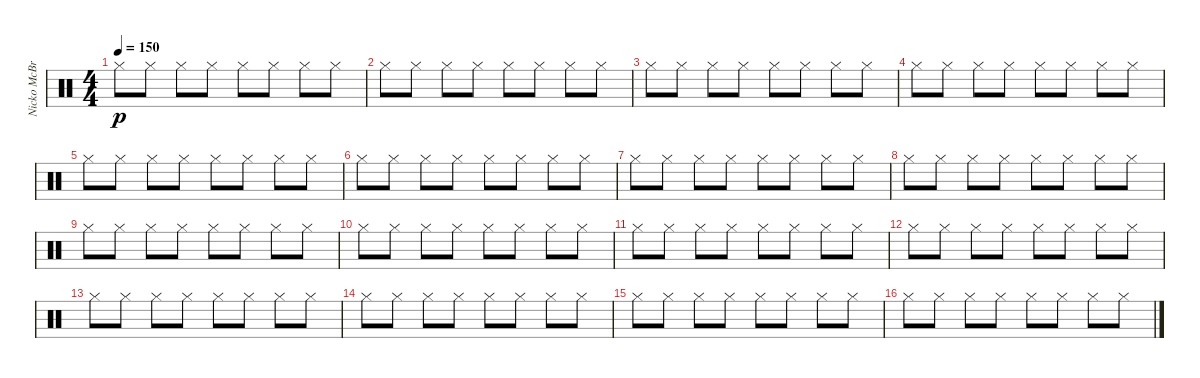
\track ("Nicko McBrain" "Nicko McBr") {instrument percussion}
\staff {score}
\articulation defaults
\ts (4 4)
\tempo 150
\clef neutral
\ks c "Hi-Hat (closed)".8{dy p} "Hi-Hat (closed)".8 "Hi-Hat (closed)".8 "Hi-Hat (closed)".8 "Hi-Hat (closed)".8 "Hi-Hat (closed)".8 "Hi-Hat (closed)".8 "Hi-Hat (closed)".8
|
"Hi-Hat (closed)".8 "Hi-Hat (closed)".8 "Hi-Hat (closed)".8 "Hi-Hat (closed)".8 "Hi-Hat (closed)".8 "Hi-Hat (closed)".8 "Hi-Hat (closed)".8 "Hi-Hat (closed)".8 |
"Hi-Hat (closed)".8 "Hi-Hat (closed)".8 "Hi-Hat (closed)".8 "Hi-Hat (closed)".8 "Hi-Hat (closed)".8 "Hi-Hat (closed)".8 "Hi-Hat (closed)".8 "Hi-Hat (closed)".8 |
"Hi-Hat (closed)".8 "Hi-Hat (closed)".8 "Hi-Hat (closed)".8 "Hi-Hat (closed)".8 "Hi-Hat (closed)".8 "Hi-Hat (closed)".8 "Hi-Hat (closed)".8 "Hi-Hat (closed)".8 |
"Hi-Hat (closed)".8 "Hi-Hat (closed)".8 "Hi-Hat (closed)".8 "Hi-Hat (closed)".8 "Hi-Hat (closed)".8 "Hi-Hat (closed)".8 "Hi-Hat (closed)".8 "Hi-Hat (closed)".8 |
"Hi-Hat (closed)".8 "Hi-Hat (closed)".8 "Hi-Hat (closed)".8 "Hi-Hat (closed)".8 "Hi-Hat (closed)".8 "Hi-Hat (closed)".8 "Hi-Hat (closed)".8 "Hi-Hat (closed)".8 |
"Hi-Hat (closed)".8 "Hi-Hat (closed)".8 "Hi-Hat (closed)".8 "Hi-Hat (closed)".8 "Hi-Hat (closed)".8 "Hi-Hat (closed)".8 "Hi-Hat (closed)".8 "Hi-Hat (closed)".8 |
"Hi-Hat (closed)".8 "Hi-Hat (closed)".8 "Hi-Hat (closed)".8 "Hi-Hat (closed)".8 "Hi-Hat (closed)".8 "Hi-Hat (closed)".8 "Hi-Hat (closed)".8 "Hi-Hat (closed)".8 |
"Hi-Hat (closed)".8 "Hi-Hat (closed)".8 "Hi-Hat (closed)".8 "Hi-Hat (closed)".8 "Hi-Hat (closed)".8 "Hi-Hat (closed)".8 "Hi-Hat (closed)".8 "Hi-Hat (closed)".8 |
"Hi-Hat (closed)".8 "Hi-Hat (closed)".8 "Hi-Hat (closed)".8 "Hi-Hat (closed)".8 "Hi-Hat (closed)".8 "Hi-Hat (closed)".8 "Hi-Hat (closed)".8 "Hi-Hat (closed)".8 |
"Hi-Hat (closed)".8 "Hi-Hat (closed)".8 "Hi-Hat (closed)".8 "Hi-Hat (closed)".8 "Hi-Hat (closed)".8 "Hi-Hat (closed)".8 "Hi-Hat (closed)".8 "Hi-Hat (closed)".8 |
"Hi-Hat (closed)".8 "Hi-Hat (closed)".8 "Hi-Hat (closed)".8 "Hi-Hat (closed)".8 "Hi-Hat (closed)".8 "Hi-Hat (closed)".8 "Hi-Hat (closed)".8 "Hi-Hat (closed)".8 |
"Hi-Hat (closed)".8 "Hi-Hat (closed)".8 "Hi-Hat (closed)".8 "Hi-Hat (closed)".8 "Hi-Hat (closed)".8 "Hi-Hat (closed)".8 "Hi-Hat (closed)".8 "Hi-Hat (closed)".8 |
"Hi-Hat (closed)".8 "Hi-Hat (closed)".8 "Hi-Hat (closed)".8 "Hi-Hat (closed)".8 "Hi-Hat (closed)".8 "Hi-Hat (closed)".8 "Hi-Hat (closed)".8 "Hi-Hat (closed)".8 |
"Hi-Hat (closed)".8 "Hi-Hat (closed)".8 "Hi-Hat (closed)".8 "Hi-Hat (closed)".8 "Hi-Hat (closed)".8 "Hi-Hat (closed)".8 "Hi-Hat (closed)".8 "Hi-Hat (closed)".8 |
"Hi-Hat (closed)".8 "Hi-Hat (closed)".8 "Hi-Hat (closed)".8 "Hi-Hat (closed)".8 "Hi-Hat (closed)".8 "Hi-Hat (closed)".8 "Hi-Hat (closed)".8 "Hi-Hat (closed)".8
